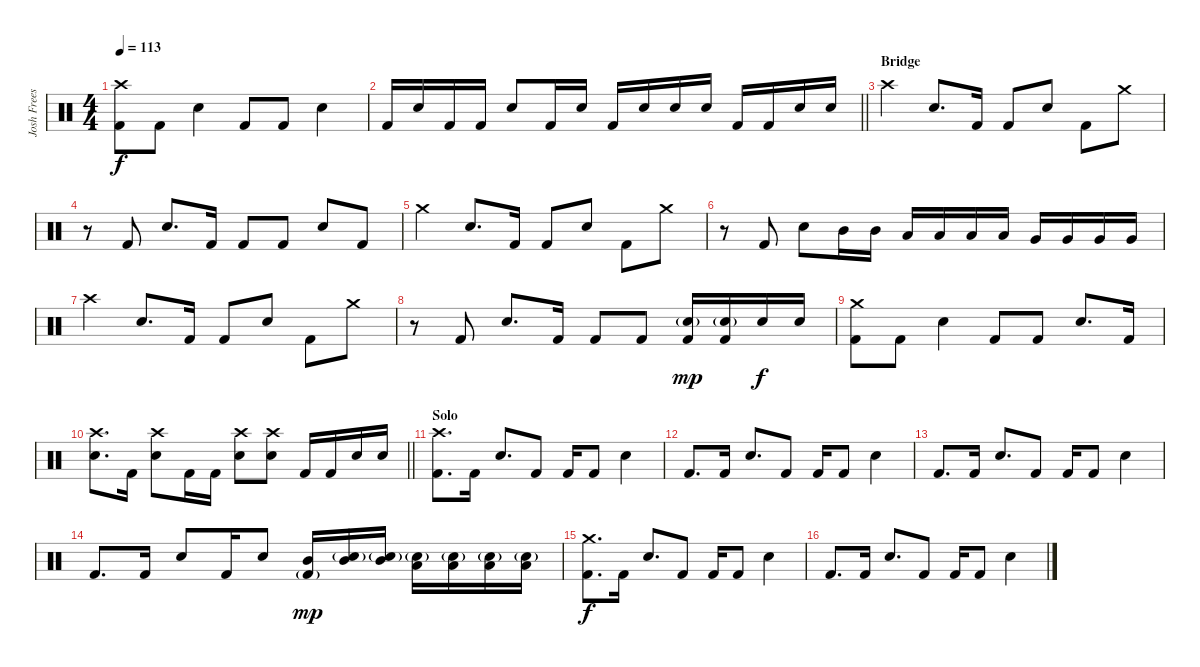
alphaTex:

\track ("Josh Freese (Studio Drummer)" "Josh Frees") {instrument percussion}
\staff {score}
\articulation defaults
\ts (4 4)
\tempo 113
\clef neutral
\ks c
("Crash high (hit)" "Kick (hit) 2").8{dy f} "Kick (hit) 2".8 "Electric Snare (hit)".4 "Kick (hit) 2".8 "Kick (hit) 2".8 "Electric Snare (hit)".4 |
\barLineRight lightlight "Kick (hit) 2".16 "Electric Snare (hit)".16 "Kick (hit) 2".16 "Kick (hit) 2".16 "Electric Snare (hit)".8 "Kick (hit) 2".16 "Electric Snare (hit)".16 "Kick (hit) 2".16 "Snare (hit) 2".16 "Snare (hit) 2".16 "Snare (hit) 2".16 "Kick (hit) 2".16 "Kick (hit) 2".16 "Electric Snare (hit)".16 "Electric Snare (hit)".16
|
\section ("" "Bridge")
"Crash high (hit)".4 "Electric Snare (hit)".8{d} "Kick (hit) 2".16 "Kick (hit) 2".8 "Electric Snare (hit)".8 "Kick (hit) 2".8 "Crash medium (hit)".8 |
r.8 "Kick (hit) 2".8 "Electric Snare (hit)".8{d} "Kick (hit) 2".16 "Kick (hit) 2".8 "Kick (hit) 2".8 "Electric Snare (hit)".8 "Kick (hit) 2".8 |
"Crash medium (hit)".4 "Electric Snare (hit)".8{d} "Kick (hit) 2".16 "Kick (hit) 2".8 "Electric Snare (hit)".8 "Kick (hit) 2".8 "Crash medium (hit)".8 |
r.8 "Kick (hit) 2".8 "Electric Snare (hit)".8 "Mid Tom (hit)".16 "Mid Tom (hit)".16 "Low Tom (hit)".16 "Low Tom (hit)".16 "Low Tom (hit)".16 "Low Tom (hit)".16 "Very Low Tom (hit)".16 "Very Low Tom (hit)".16 "Very Low Tom (hit)".16 "Very Low Tom (hit)".16 |
"Crash high (hit)".4 "Electric Snare (hit)".8{d} "Kick (hit) 2".16 "Kick (hit) 2".8 "Electric Snare (hit)".8 "Kick (hit) 2".8 "Crash medium (hit)".8 |
r.8 "Kick (hit) 2".8 "Electric Snare (hit)".8{d} "Kick (hit) 2".16 "Kick (hit) 2".8 "Kick (hit) 2".8 ("Electric Snare (hit)"{g} "Kick (hit) 2").16{dy mp} ("Electric Snare (hit)"{g} "Kick (hit) 2").16 "Electric Snare (hit)".16{dy f} "Electric Snare (hit)".16 |
("Crash medium (hit)" "Kick (hit) 2").8 "Kick (hit) 2".8 "Electric Snare (hit)".4 "Kick (hit) 2".8 "Kick (hit) 2".8 "Electric Snare (hit)".8{d} "Kick (hit) 2".16 |
\barLineRight lightlight
("Crash high (hit)" "Electric Snare (hit)").8{d} "Kick (hit) 2".16 ("Crash high (hit)" "Electric Snare (hit)").8 "Kick (hit) 2".16 "Kick (hit) 2".16 ("Crash high (hit)" "Electric Snare (hit)").8 ("Crash high (hit)" "Electric Snare (hit)").8 "Kick (hit) 2".16 "Kick (hit) 2".16 "Electric Snare (hit)".16 "Electric Snare (hit)".16 |
\section ("" "Solo")
("Crash high (hit)" "Kick (hit) 2").8{d} "Kick (hit) 2".16 "Electric Snare (hit)".8{d} "Kick (hit) 2".8 "Kick (hit) 2".16 "Kick (hit) 2".8 "Electric Snare (hit)".4 |
"Kick (hit) 2".8{d} "Kick (hit) 2".16 "Electric Snare (hit)".8{d} "Kick (hit) 2".8 "Kick (hit) 2".16 "Kick (hit) 2".8 "Electric Snare (hit)".4 |
"Kick (hit) 2".8{d} "Kick (hit) 2".16 "Electric Snare (hit)".8{d} "Kick (hit) 2".8 "Kick (hit) 2".16 "Kick (hit) 2".8 "Electric Snare (hit)".4 |
"Kick (hit) 2".8{d} "Kick (hit) 2".16 "Electric Snare (hit)".8 "Kick (hit) 2".16 "Electric Snare (hit)".8 ("Mid Tom (hit)" "Kick (hit) 2"{g}).16{dy mp} ("Mid Tom (hit)" "Electric Snare (hit)"{g}).16 ("Mid Tom (hit)" "Electric Snare (hit)"{g}).16 ("Low Tom (hit)" "Electric Snare (hit)"{g}).16 ("Low Tom (hit)" "Electric Snare (hit)"{g}).16 ("Low Tom (hit)" "Electric Snare (hit)"{g}).16 ("Low Tom (hit)" "Electric Snare (hit)"{g}).16 |
("Crash medium (hit)" "Kick (hit) 2").8{d dy f} "Kick (hit) 2".16 "Electric Snare (hit)".8{d} "Kick (hit) 2".8 "Kick (hit) 2".16 "Kick (hit) 2".8 "Electric Snare (hit)".4 |
"Kick (hit) 2".8{d} "Kick (hit) 2".16 "Electric Snare (hit)".8{d} "Kick (hit) 2".8 "Kick (hit) 2".16 "Kick (hit) 2".8 "Electric Snare (hit)".4
